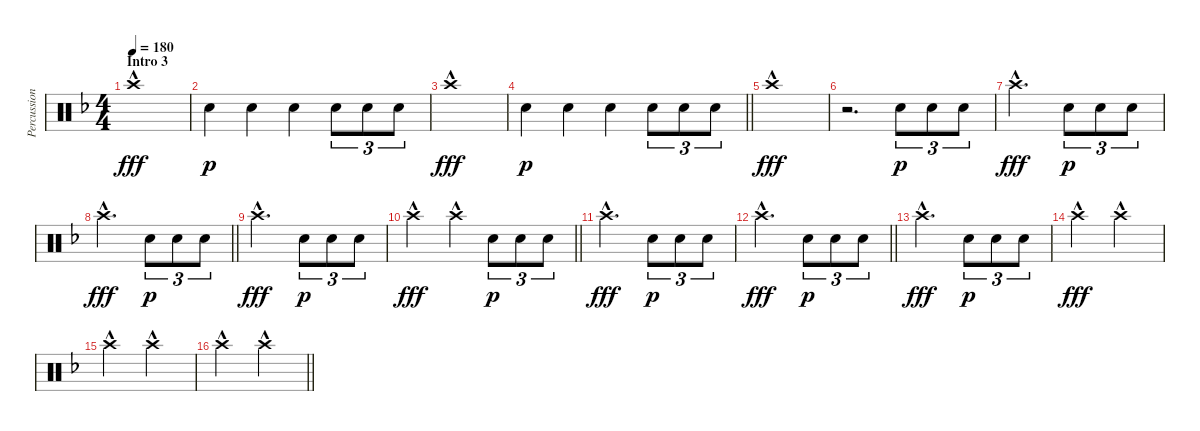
\track ("Percussion" "Percussion") {instrument percussion}
\staff {score}
\articulation defaults
\ts (4 4)
\section ("" "Intro 3")
\tempo 180
\clef neutral
\ks dminor "Crash high (hit)"{hac}.1{dy fff}
|
"Snare (hit) 2".4{dy p} "Snare (hit) 2".4 "Snare (hit) 2".4 "Snare (hit) 2".8{tu (3 2)} "Snare (hit) 2".8{tu (3 2)} "Snare (hit) 2".8{tu (3 2)} |
"Crash high (hit)"{hac}.1{dy fff} |
\barLineRight lightlight "Snare (hit) 2".4{dy p} "Snare (hit) 2".4 "Snare (hit) 2".4 "Snare (hit) 2".8{tu (3 2)} "Snare (hit) 2".8{tu (3 2)} "Snare (hit) 2".8{tu (3 2)}
|
\section ("" "")
"Crash high (hit)"{hac}.1{dy fff} |
r.2{d} "Snare (hit) 2".8{tu (3 2) dy p} "Snare (hit) 2".8{tu (3 2)} "Snare (hit) 2".8{tu (3 2)} |
"Crash high (hit)"{hac}.2{d dy fff} "Snare (hit) 2".8{tu (3 2) dy p} "Snare (hit) 2".8{tu (3 2)} "Snare (hit) 2".8{tu (3 2)} |
\barLineRight lightlight "Crash high (hit)"{hac}.2{d dy fff} "Snare (hit) 2".8{tu (3 2) dy p} "Snare (hit) 2".8{tu (3 2)} "Snare (hit) 2".8{tu (3 2)}
|
\section ("" "")
"Crash high (hit)"{hac}.2{d dy fff} "Snare (hit) 2".8{tu (3 2) dy p} "Snare (hit) 2".8{tu (3 2)} "Snare (hit) 2".8{tu (3 2)} |
\barLineRight lightlight "Crash high (hit)"{hac}.2{dy fff} "Crash high (hit)"{hac}.4 "Snare (hit) 2".8{tu (3 2) dy p} "Snare (hit) 2".8{tu (3 2)} "Snare (hit) 2".8{tu (3 2)}
|
"Crash high (hit)"{hac}.2{d dy fff} "Snare (hit) 2".8{tu (3 2) dy p} "Snare (hit) 2".8{tu (3 2)} "Snare (hit) 2".8{tu (3 2)} |
\barLineRight lightlight "Crash high (hit)"{hac}.2{d dy fff} "Snare (hit) 2".8{tu (3 2) dy p} "Snare (hit) 2".8{tu (3 2)} "Snare (hit) 2".8{tu (3 2)}
|
\section ("" "")
"Crash high (hit)"{hac}.2{d dy fff} "Snare (hit) 2".8{tu (3 2) dy p} "Snare (hit) 2".8{tu (3 2)} "Snare (hit) 2".8{tu (3 2)} |
"Crash high (hit)"{hac}.2{dy fff} "Crash high (hit)"{hac}.2 |
"Crash high (hit)"{hac}.2 "Crash high (hit)"{hac}.2 |
\barLineRight lightlight "Crash high (hit)"{hac}.2 "Crash high (hit)"{hac}.2
